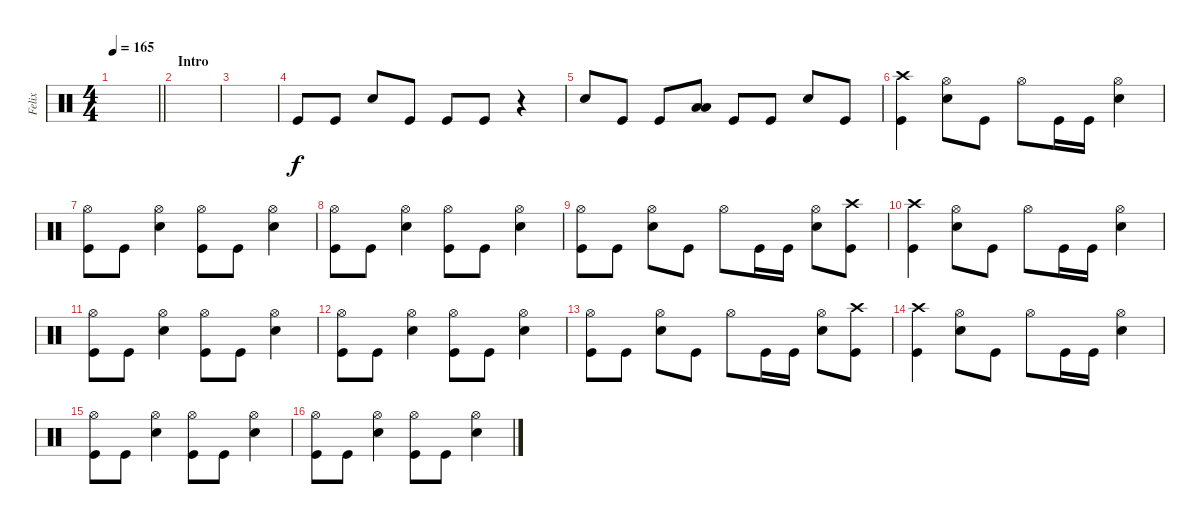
\track ("Felix" "Felix") {instrument percussion}
\staff {score}
\articulation defaults
\ts (4 4)
\tempo 165
\clef neutral
\barLineRight lightlight
\ks c
|
\section ("" "Intro")
|
|
"Kick (hit)".8 "Kick (hit)".8 "Snare (hit) 2".8 "Kick (hit)".8 "Kick (hit)".8 "Kick (hit)".8 r.4 |
"Snare (hit) 2".8 "Kick (hit)".8 "Kick (hit)".8 ("Low Floor Tom (hit)" "Low Floor Tom (hit)").8 "Kick (hit)".8 "Kick (hit)".8 "Snare (hit) 2".8 "Kick (hit)".8 |
("Crash high (hit)" "Kick (hit)").4 ("Hi-Hat (open)" "Snare (hit) 2").8 "Kick (hit)".8 "Hi-Hat (open)".8 "Kick (hit)".16 "Kick (hit)".16 ("Hi-Hat (open)" "Snare (hit) 2").4 |
("Hi-Hat (open)" "Kick (hit)").8 "Kick (hit)".8 ("Hi-Hat (open)" "Snare (hit) 2").4 ("Hi-Hat (open)" "Kick (hit)").8 "Kick (hit)".8 ("Hi-Hat (open)" "Snare (hit) 2").4 |
("Hi-Hat (open)" "Kick (hit)").8 "Kick (hit)".8 ("Hi-Hat (open)" "Snare (hit) 2").4 ("Hi-Hat (open)" "Kick (hit)").8 "Kick (hit)".8 ("Hi-Hat (open)" "Snare (hit) 2").4 |
("Hi-Hat (open)" "Kick (hit)").8 "Kick (hit)".8 ("Hi-Hat (open)" "Snare (hit) 2").8 "Kick (hit)".8 "Hi-Hat (open)".8 "Kick (hit)".16 "Kick (hit)".16 ("Hi-Hat (open)" "Snare (hit) 2").8 ("Crash high (hit)" "Kick (hit)").8 |
("Crash high (hit)" "Kick (hit)").4 ("Hi-Hat (open)" "Snare (hit) 2").8 "Kick (hit)".8 "Hi-Hat (open)".8 "Kick (hit)".16 "Kick (hit)".16 ("Hi-Hat (open)" "Snare (hit) 2").4 |
("Hi-Hat (open)" "Kick (hit)").8 "Kick (hit)".8 ("Hi-Hat (open)" "Snare (hit) 2").4 ("Hi-Hat (open)" "Kick (hit)").8 "Kick (hit)".8 ("Hi-Hat (open)" "Snare (hit) 2").4 |
("Hi-Hat (open)" "Kick (hit)").8 "Kick (hit)".8 ("Hi-Hat (open)" "Snare (hit) 2").4 ("Hi-Hat (open)" "Kick (hit)").8 "Kick (hit)".8 ("Hi-Hat (open)" "Snare (hit) 2").4 |
("Hi-Hat (open)" "Kick (hit)").8 "Kick (hit)".8 ("Hi-Hat (open)" "Snare (hit) 2").8 "Kick (hit)".8 "Hi-Hat (open)".8 "Kick (hit)".16 "Kick (hit)".16 ("Hi-Hat (open)" "Snare (hit) 2").8 ("Crash high (hit)" "Kick (hit)").8 |
("Crash high (hit)" "Kick (hit)").4 ("Hi-Hat (open)" "Snare (hit) 2").8 "Kick (hit)".8 "Hi-Hat (open)".8 "Kick (hit)".16 "Kick (hit)".16 ("Hi-Hat (open)" "Snare (hit) 2").4 |
("Hi-Hat (open)" "Kick (hit)").8 "Kick (hit)".8 ("Hi-Hat (open)" "Snare (hit) 2").4 ("Hi-Hat (open)" "Kick (hit)").8 "Kick (hit)".8 ("Hi-Hat (open)" "Snare (hit) 2").4 |
("Hi-Hat (open)" "Kick (hit)").8 "Kick (hit)".8 ("Hi-Hat (open)" "Snare (hit) 2").4 ("Hi-Hat (open)" "Kick (hit)").8 "Kick (hit)".8 ("Hi-Hat (open)" "Snare (hit) 2").4
